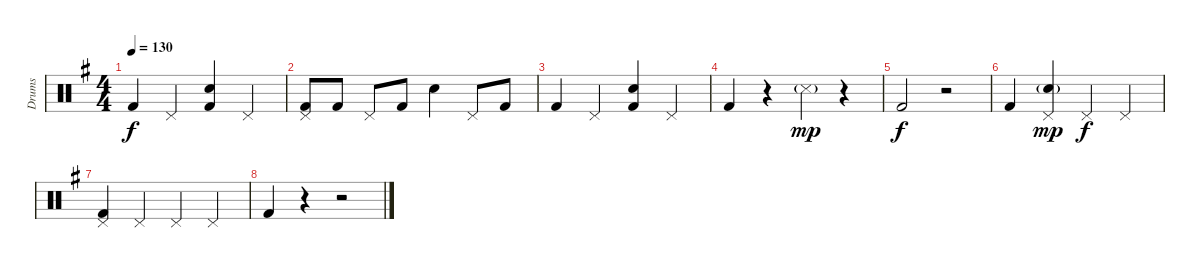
\track ("Drums" "Drums") {instrument percussion}
\staff {score}
\articulation defaults
\ts (4 4)
\tempo 130
\clef neutral
\ks g "Kick (hit) 2".4{dy f} "Pedal Hi-Hat (hit)".4
("Electric Snare (hit)" "Kick (hit) 2").4 "Pedal Hi-Hat (hit)".4 |
("Pedal Hi-Hat (hit)" "Kick (hit) 2").8 "Kick (hit) 2".8 "Pedal Hi-Hat (hit)".8 "Kick (hit) 2".8 "Electric Snare (hit)".4 "Pedal Hi-Hat (hit)".8 "Kick (hit) 2".8 |
"Kick (hit) 2".4 "Pedal Hi-Hat (hit)".4 ("Electric Snare (hit)" "Kick (hit) 2").4 "Pedal Hi-Hat (hit)".4 |
"Kick (hit) 2".4 r.4 "Snare (side stick) 3"{g}.4{dy mp} r.4 |
"Kick (hit) 2".2{dy f} r.2 |
"Kick (hit) 2".4 ("Pedal Hi-Hat (hit)" "Electric Snare (hit)"{g}).4{dy mp} "Pedal Hi-Hat (hit)".4{dy f} "Pedal Hi-Hat (hit)".4 |
("Pedal Hi-Hat (hit)" "Kick (hit) 2").4 "Pedal Hi-Hat (hit)".4 "Pedal Hi-Hat (hit)".4 "Pedal Hi-Hat (hit)".4 |
"Kick (hit) 2".4 r.4 r.2
